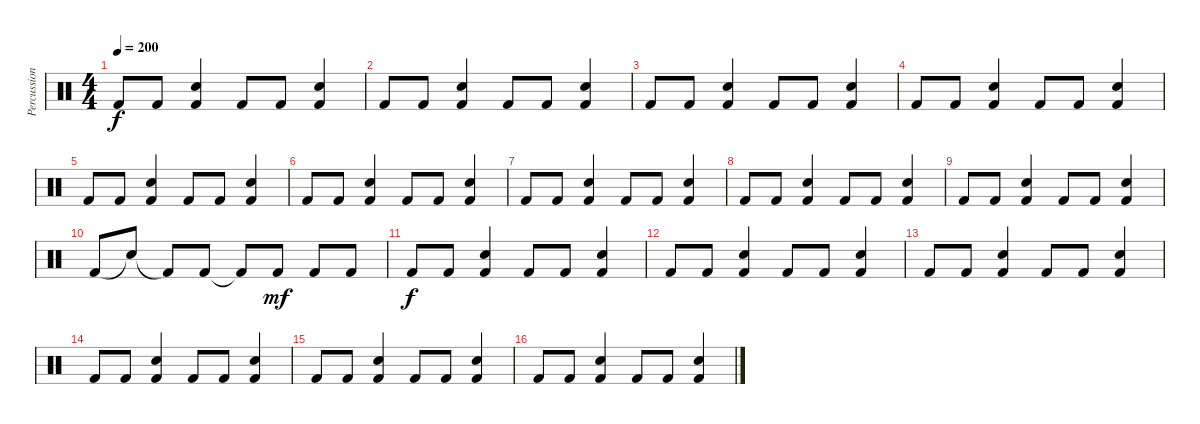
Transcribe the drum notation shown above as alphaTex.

\track ("Percussioni" "Percussion") {instrument percussion}
\staff {score}
\articulation defaults
\ts (4 4)
\tempo 200
\clef neutral
\ks c "Kick (hit) 2".8{dy f} "Kick (hit) 2".8
("Snare (hit) 2" "Kick (hit) 2").4 "Kick (hit) 2".8 "Kick (hit) 2".8 ("Snare (hit) 2" "Kick (hit) 2").4 |
"Kick (hit) 2".8 "Kick (hit) 2".8 ("Snare (hit) 2" "Kick (hit) 2").4 "Kick (hit) 2".8 "Kick (hit) 2".8 ("Snare (hit) 2" "Kick (hit) 2").4 |
"Kick (hit) 2".8 "Kick (hit) 2".8 ("Snare (hit) 2" "Kick (hit) 2").4 "Kick (hit) 2".8 "Kick (hit) 2".8 ("Snare (hit) 2" "Kick (hit) 2").4 |
"Kick (hit) 2".8 "Kick (hit) 2".8 ("Snare (hit) 2" "Kick (hit) 2").4 "Kick (hit) 2".8 "Kick (hit) 2".8 ("Snare (hit) 2" "Kick (hit) 2").4 |
"Kick (hit) 2".8 "Kick (hit) 2".8 ("Snare (hit) 2" "Kick (hit) 2").4 "Kick (hit) 2".8 "Kick (hit) 2".8 ("Snare (hit) 2" "Kick (hit) 2").4 |
"Kick (hit) 2".8 "Kick (hit) 2".8 ("Snare (hit) 2" "Kick (hit) 2").4 "Kick (hit) 2".8 "Kick (hit) 2".8 ("Snare (hit) 2" "Kick (hit) 2").4 |
"Kick (hit) 2".8 "Kick (hit) 2".8 ("Snare (hit) 2" "Kick (hit) 2").4 "Kick (hit) 2".8 "Kick (hit) 2".8 ("Snare (hit) 2" "Kick (hit) 2").4 |
"Kick (hit) 2".8 "Kick (hit) 2".8 ("Snare (hit) 2" "Kick (hit) 2").4 "Kick (hit) 2".8 "Kick (hit) 2".8 ("Snare (hit) 2" "Kick (hit) 2").4 |
"Kick (hit) 2".8 "Kick (hit) 2".8 ("Snare (hit) 2" "Kick (hit) 2").4 "Kick (hit) 2".8 "Kick (hit) 2".8 ("Snare (hit) 2" "Kick (hit) 2").4 |
"Kick (hit) 2".8 "Snare (hit)"{t}.8 "Kick (hit) 2"{t}.8 "Kick (hit) 2".8 "Kick (hit) 2"{t}.8 "Kick (hit) 2".8{dy mf} "Kick (hit) 2".8 "Kick (hit) 2".8 |
"Kick (hit) 2".8{dy f} "Kick (hit) 2".8 ("Snare (hit) 2" "Kick (hit) 2").4 "Kick (hit) 2".8 "Kick (hit) 2".8 ("Snare (hit) 2" "Kick (hit) 2").4 |
"Kick (hit) 2".8 "Kick (hit) 2".8 ("Snare (hit) 2" "Kick (hit) 2").4 "Kick (hit) 2".8 "Kick (hit) 2".8 ("Snare (hit) 2" "Kick (hit) 2").4 |
"Kick (hit) 2".8 "Kick (hit) 2".8 ("Snare (hit) 2" "Kick (hit) 2").4 "Kick (hit) 2".8 "Kick (hit) 2".8 ("Snare (hit) 2" "Kick (hit) 2").4 |
"Kick (hit) 2".8 "Kick (hit) 2".8 ("Snare (hit) 2" "Kick (hit) 2").4 "Kick (hit) 2".8 "Kick (hit) 2".8 ("Snare (hit) 2" "Kick (hit) 2").4 |
"Kick (hit) 2".8 "Kick (hit) 2".8 ("Snare (hit) 2" "Kick (hit) 2").4 "Kick (hit) 2".8 "Kick (hit) 2".8 ("Snare (hit) 2" "Kick (hit) 2").4 |
"Kick (hit) 2".8 "Kick (hit) 2".8 ("Snare (hit) 2" "Kick (hit) 2").4 "Kick (hit) 2".8 "Kick (hit) 2".8 ("Snare (hit) 2" "Kick (hit) 2").4
